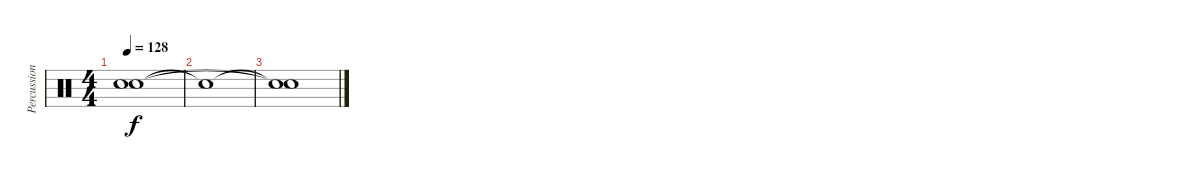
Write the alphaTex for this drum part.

\track ("Percussion" "Percussion") {instrument percussion}
\staff {score}
\articulation defaults
\ts (4 4)
\tempo 128
\clef neutral
\ks c
("Snare (hit)"{t} "Snare (hit)"{t}).1{dy f} |
"Snare (hit)"{t}.1 |
("Snare (hit)"{t} "Snare (hit)"{t}).1
